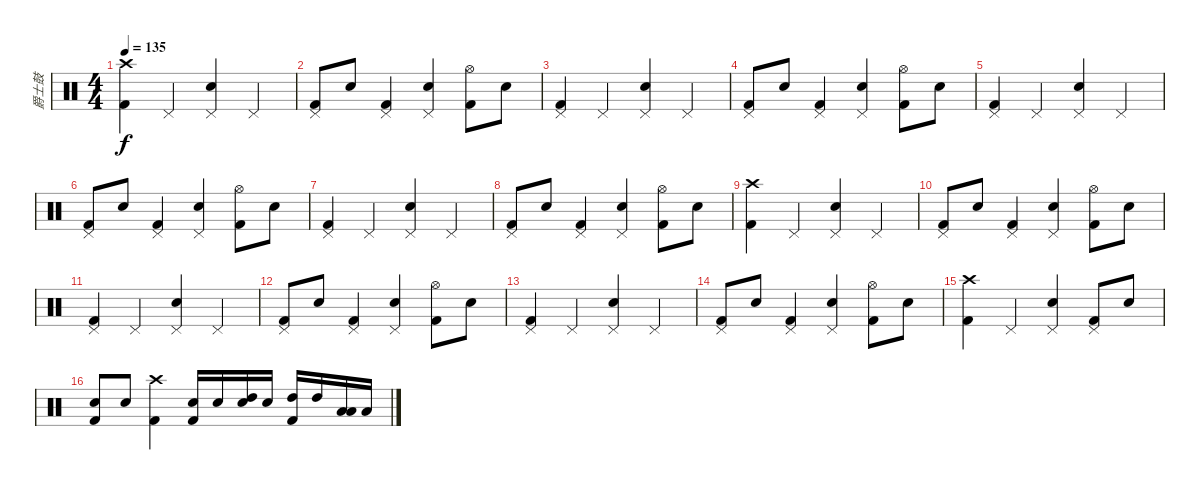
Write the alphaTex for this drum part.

\track ("爵士鼓" "爵士鼓") {instrument percussion}
\staff {score}
\articulation defaults
\ts (4 4)
\tempo 135
\clef neutral
\ks c
("Crash high (hit)" "Kick (hit) 2").4{dy f} "Pedal Hi-Hat (hit)".4 ("Pedal Hi-Hat (hit)" "Snare (hit) 2").4 "Pedal Hi-Hat (hit)".4 |
("Pedal Hi-Hat (hit)" "Kick (hit) 2").8 "Snare (hit) 2".8 ("Pedal Hi-Hat (hit)" "Kick (hit) 2").4 ("Pedal Hi-Hat (hit)" "Snare (hit) 2").4 ("Hi-Hat (open)" "Kick (hit) 2").8 "Snare (hit) 2".8 |
("Pedal Hi-Hat (hit)" "Kick (hit) 2").4 "Pedal Hi-Hat (hit)".4 ("Pedal Hi-Hat (hit)" "Snare (hit) 2").4 "Pedal Hi-Hat (hit)".4 |
("Pedal Hi-Hat (hit)" "Kick (hit) 2").8 "Snare (hit) 2".8 ("Pedal Hi-Hat (hit)" "Kick (hit) 2").4 ("Pedal Hi-Hat (hit)" "Snare (hit) 2").4 ("Hi-Hat (open)" "Kick (hit) 2").8 "Snare (hit) 2".8 |
("Pedal Hi-Hat (hit)" "Kick (hit) 2").4 "Pedal Hi-Hat (hit)".4 ("Pedal Hi-Hat (hit)" "Snare (hit) 2").4 "Pedal Hi-Hat (hit)".4 |
("Pedal Hi-Hat (hit)" "Kick (hit) 2").8 "Snare (hit) 2".8 ("Pedal Hi-Hat (hit)" "Kick (hit) 2").4 ("Pedal Hi-Hat (hit)" "Snare (hit) 2").4 ("Hi-Hat (open)" "Kick (hit) 2").8 "Snare (hit) 2".8 |
("Pedal Hi-Hat (hit)" "Kick (hit) 2").4 "Pedal Hi-Hat (hit)".4 ("Pedal Hi-Hat (hit)" "Snare (hit) 2").4 "Pedal Hi-Hat (hit)".4 |
("Pedal Hi-Hat (hit)" "Kick (hit) 2").8 "Snare (hit) 2".8 ("Pedal Hi-Hat (hit)" "Kick (hit) 2").4 ("Pedal Hi-Hat (hit)" "Snare (hit) 2").4 ("Hi-Hat (open)" "Kick (hit) 2").8 "Snare (hit) 2".8 |
("Crash high (hit)" "Kick (hit) 2").4 "Pedal Hi-Hat (hit)".4 ("Pedal Hi-Hat (hit)" "Snare (hit) 2").4 "Pedal Hi-Hat (hit)".4 |
("Pedal Hi-Hat (hit)" "Kick (hit) 2").8 "Snare (hit) 2".8 ("Pedal Hi-Hat (hit)" "Kick (hit) 2").4 ("Pedal Hi-Hat (hit)" "Snare (hit) 2").4 ("Hi-Hat (open)" "Kick (hit) 2").8 "Snare (hit) 2".8 |
("Pedal Hi-Hat (hit)" "Kick (hit) 2").4 "Pedal Hi-Hat (hit)".4 ("Pedal Hi-Hat (hit)" "Snare (hit) 2").4 "Pedal Hi-Hat (hit)".4 |
("Pedal Hi-Hat (hit)" "Kick (hit) 2").8 "Snare (hit) 2".8 ("Pedal Hi-Hat (hit)" "Kick (hit) 2").4 ("Pedal Hi-Hat (hit)" "Snare (hit) 2").4 ("Hi-Hat (open)" "Kick (hit) 2").8 "Snare (hit) 2".8 |
("Pedal Hi-Hat (hit)" "Kick (hit) 2").4 "Pedal Hi-Hat (hit)".4 ("Pedal Hi-Hat (hit)" "Snare (hit) 2").4 "Pedal Hi-Hat (hit)".4 |
("Pedal Hi-Hat (hit)" "Kick (hit) 2").8 "Snare (hit) 2".8 ("Pedal Hi-Hat (hit)" "Kick (hit) 2").4 ("Pedal Hi-Hat (hit)" "Snare (hit) 2").4 ("Hi-Hat (open)" "Kick (hit) 2").8 "Snare (hit) 2".8 |
("Crash high (hit)" "Kick (hit) 2").4 "Pedal Hi-Hat (hit)".4 ("Pedal Hi-Hat (hit)" "Snare (hit) 2").4 ("Pedal Hi-Hat (hit)" "Kick (hit) 2").8 "Electric Snare (hit)".8 |
("Snare (hit) 2" "Kick (hit) 2").8 "Snare (hit) 2".8 ("Crash high (hit)" "Kick (hit) 2").4 ("Electric Snare (hit)" "Kick (hit) 2").16 "Electric Snare (hit)".16 ("Snare (hit) 2" "High Tom (hit)").16 "Snare (hit) 2".16 ("High Tom (hit)" "Kick (hit) 2").16 "High Tom (hit)".16 ("Low Tom (hit)" "Low Tom (hit)").16 "Low Tom (hit)".16
